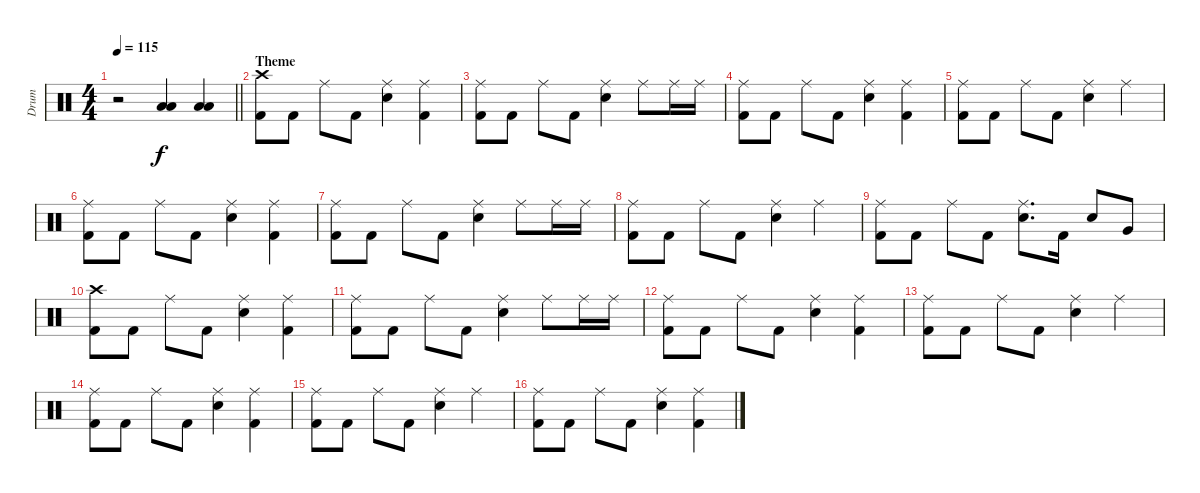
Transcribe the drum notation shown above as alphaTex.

\track ("Drum" "Drum") {instrument percussion}
\staff {score}
\articulation defaults
\ts (4 4)
\tempo 115
\clef neutral
\barLineRight lightlight
\ks c
r.2{dy f} ("Low Floor Tom (hit)" "Low Tom (hit)").4 ("Low Floor Tom (hit)" "Low Tom (hit)").4 |
\section ("" "Theme")
("Kick (hit) 2" "Crash high (hit)").8 "Kick (hit) 2".8 "Ride (middle)".8 "Kick (hit) 2".8 ("Ride (middle)" "Electric Snare (hit)").4 ("Kick (hit) 2" "Ride (middle)").4 |
("Kick (hit) 2" "Ride (middle)").8 "Kick (hit) 2".8 "Ride (middle)".8 "Kick (hit) 2".8 ("Ride (middle)" "Electric Snare (hit)").4 "Ride (middle)".8 "Ride (middle)".16 "Ride (middle)".16 |
("Kick (hit) 2" "Ride (middle)").8 "Kick (hit) 2".8 "Ride (middle)".8 "Kick (hit) 2".8 ("Ride (middle)" "Electric Snare (hit)").4 ("Kick (hit) 2" "Ride (middle)").4 |
("Kick (hit) 2" "Ride (middle)").8 "Kick (hit) 2".8 "Ride (middle)".8 "Kick (hit) 2".8 ("Ride (middle)" "Electric Snare (hit)").4 "Ride (middle)".4 |
("Kick (hit) 2" "Ride (middle)").8 "Kick (hit) 2".8 "Ride (middle)".8 "Kick (hit) 2".8 ("Ride (middle)" "Electric Snare (hit)").4 ("Kick (hit) 2" "Ride (middle)").4 |
("Kick (hit) 2" "Ride (middle)").8 "Kick (hit) 2".8 "Ride (middle)".8 "Kick (hit) 2".8 ("Ride (middle)" "Electric Snare (hit)").4 "Ride (middle)".8 "Ride (middle)".16 "Ride (middle)".16 |
("Kick (hit) 2" "Ride (middle)").8 "Kick (hit) 2".8 "Ride (middle)".8 "Kick (hit) 2".8 ("Ride (middle)" "Electric Snare (hit)").4 "Ride (middle)".4 |
("Kick (hit) 2" "Ride (middle)").8 "Kick (hit) 2".8 "Ride (middle)".8 "Kick (hit) 2".8 ("Ride (middle)" "Electric Snare (hit)").8{d} "Kick (hit) 2".16 "Electric Snare (hit)".8 "Very Low Tom (hit)".8 |
("Kick (hit) 2" "Crash high (hit)").8 "Kick (hit) 2".8 "Ride (middle)".8 "Kick (hit) 2".8 ("Ride (middle)" "Electric Snare (hit)").4 ("Kick (hit) 2" "Ride (middle)").4 |
("Kick (hit) 2" "Ride (middle)").8 "Kick (hit) 2".8 "Ride (middle)".8 "Kick (hit) 2".8 ("Ride (middle)" "Electric Snare (hit)").4 "Ride (middle)".8 "Ride (middle)".16 "Ride (middle)".16 |
("Kick (hit) 2" "Ride (middle)").8 "Kick (hit) 2".8 "Ride (middle)".8 "Kick (hit) 2".8 ("Ride (middle)" "Electric Snare (hit)").4 ("Kick (hit) 2" "Ride (middle)").4 |
("Kick (hit) 2" "Ride (middle)").8 "Kick (hit) 2".8 "Ride (middle)".8 "Kick (hit) 2".8 ("Ride (middle)" "Electric Snare (hit)").4 "Ride (middle)".4 |
("Kick (hit) 2" "Ride (middle)").8 "Kick (hit) 2".8 "Ride (middle)".8 "Kick (hit) 2".8 ("Ride (middle)" "Electric Snare (hit)").4 ("Kick (hit) 2" "Ride (middle)").4 |
("Kick (hit) 2" "Ride (middle)").8 "Kick (hit) 2".8 "Ride (middle)".8 "Kick (hit) 2".8 ("Ride (middle)" "Electric Snare (hit)").4 "Ride (middle)".4 |
("Kick (hit) 2" "Ride (middle)").8 "Kick (hit) 2".8 "Ride (middle)".8 "Kick (hit) 2".8 ("Ride (middle)" "Electric Snare (hit)").4 ("Kick (hit) 2" "Ride (middle)").4
